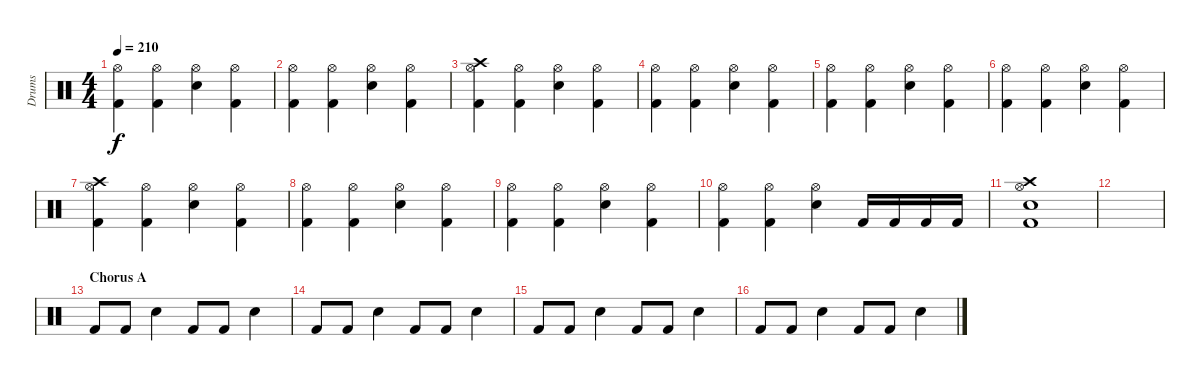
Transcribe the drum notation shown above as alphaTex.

\track ("Drums" "Drums") {instrument percussion}
\staff {score}
\articulation defaults
\ts (4 4)
\tempo 210
\clef neutral
\ks c
("Hi-Hat (open)" "Kick (hit) 2").4{dy f} ("Hi-Hat (open)" "Kick (hit) 2").4 ("Hi-Hat (open)" "Electric Snare (hit)").4 ("Hi-Hat (open)" "Kick (hit) 2").4 |
("Hi-Hat (open)" "Kick (hit) 2").4 ("Hi-Hat (open)" "Kick (hit) 2").4 ("Hi-Hat (open)" "Electric Snare (hit)").4 ("Hi-Hat (open)" "Kick (hit) 2").4 |
("Crash high (hit)" "Hi-Hat (open)" "Kick (hit) 2").4 ("Hi-Hat (open)" "Kick (hit) 2").4 ("Hi-Hat (open)" "Electric Snare (hit)").4 ("Hi-Hat (open)" "Kick (hit) 2").4 |
("Hi-Hat (open)" "Kick (hit) 2").4 ("Hi-Hat (open)" "Kick (hit) 2").4 ("Hi-Hat (open)" "Electric Snare (hit)").4 ("Hi-Hat (open)" "Kick (hit) 2").4 |
("Hi-Hat (open)" "Kick (hit) 2").4 ("Hi-Hat (open)" "Kick (hit) 2").4 ("Hi-Hat (open)" "Electric Snare (hit)").4 ("Hi-Hat (open)" "Kick (hit) 2").4 |
("Hi-Hat (open)" "Kick (hit) 2").4 ("Hi-Hat (open)" "Kick (hit) 2").4 ("Hi-Hat (open)" "Electric Snare (hit)").4 ("Hi-Hat (open)" "Kick (hit) 2").4 |
("Crash high (hit)" "Hi-Hat (open)" "Kick (hit) 2").4 ("Hi-Hat (open)" "Kick (hit) 2").4 ("Hi-Hat (open)" "Electric Snare (hit)").4 ("Hi-Hat (open)" "Kick (hit) 2").4 |
("Hi-Hat (open)" "Kick (hit) 2").4 ("Hi-Hat (open)" "Kick (hit) 2").4 ("Hi-Hat (open)" "Electric Snare (hit)").4 ("Hi-Hat (open)" "Kick (hit) 2").4 |
("Hi-Hat (open)" "Kick (hit) 2").4 ("Hi-Hat (open)" "Kick (hit) 2").4 ("Hi-Hat (open)" "Electric Snare (hit)").4 ("Hi-Hat (open)" "Kick (hit) 2").4 |
("Hi-Hat (open)" "Kick (hit) 2").4 ("Hi-Hat (open)" "Kick (hit) 2").4 ("Hi-Hat (open)" "Electric Snare (hit)").4 "Kick (hit) 2".16 "Kick (hit) 2".16 "Kick (hit) 2".16 "Kick (hit) 2".16 |
("Crash high (hit)" "Hi-Hat (open)" "Electric Snare (hit)" "Kick (hit) 2").1 |
|
\section ("" "Chorus A")
"Kick (hit) 2".8 "Kick (hit) 2".8 "Electric Snare (hit)".4 "Kick (hit) 2".8 "Kick (hit) 2".8 "Electric Snare (hit)".4 |
"Kick (hit) 2".8 "Kick (hit) 2".8 "Electric Snare (hit)".4 "Kick (hit) 2".8 "Kick (hit) 2".8 "Electric Snare (hit)".4 |
"Kick (hit) 2".8 "Kick (hit) 2".8 "Electric Snare (hit)".4 "Kick (hit) 2".8 "Kick (hit) 2".8 "Electric Snare (hit)".4 |
"Kick (hit) 2".8 "Kick (hit) 2".8 "Electric Snare (hit)".4 "Kick (hit) 2".8 "Kick (hit) 2".8 "Electric Snare (hit)".4
